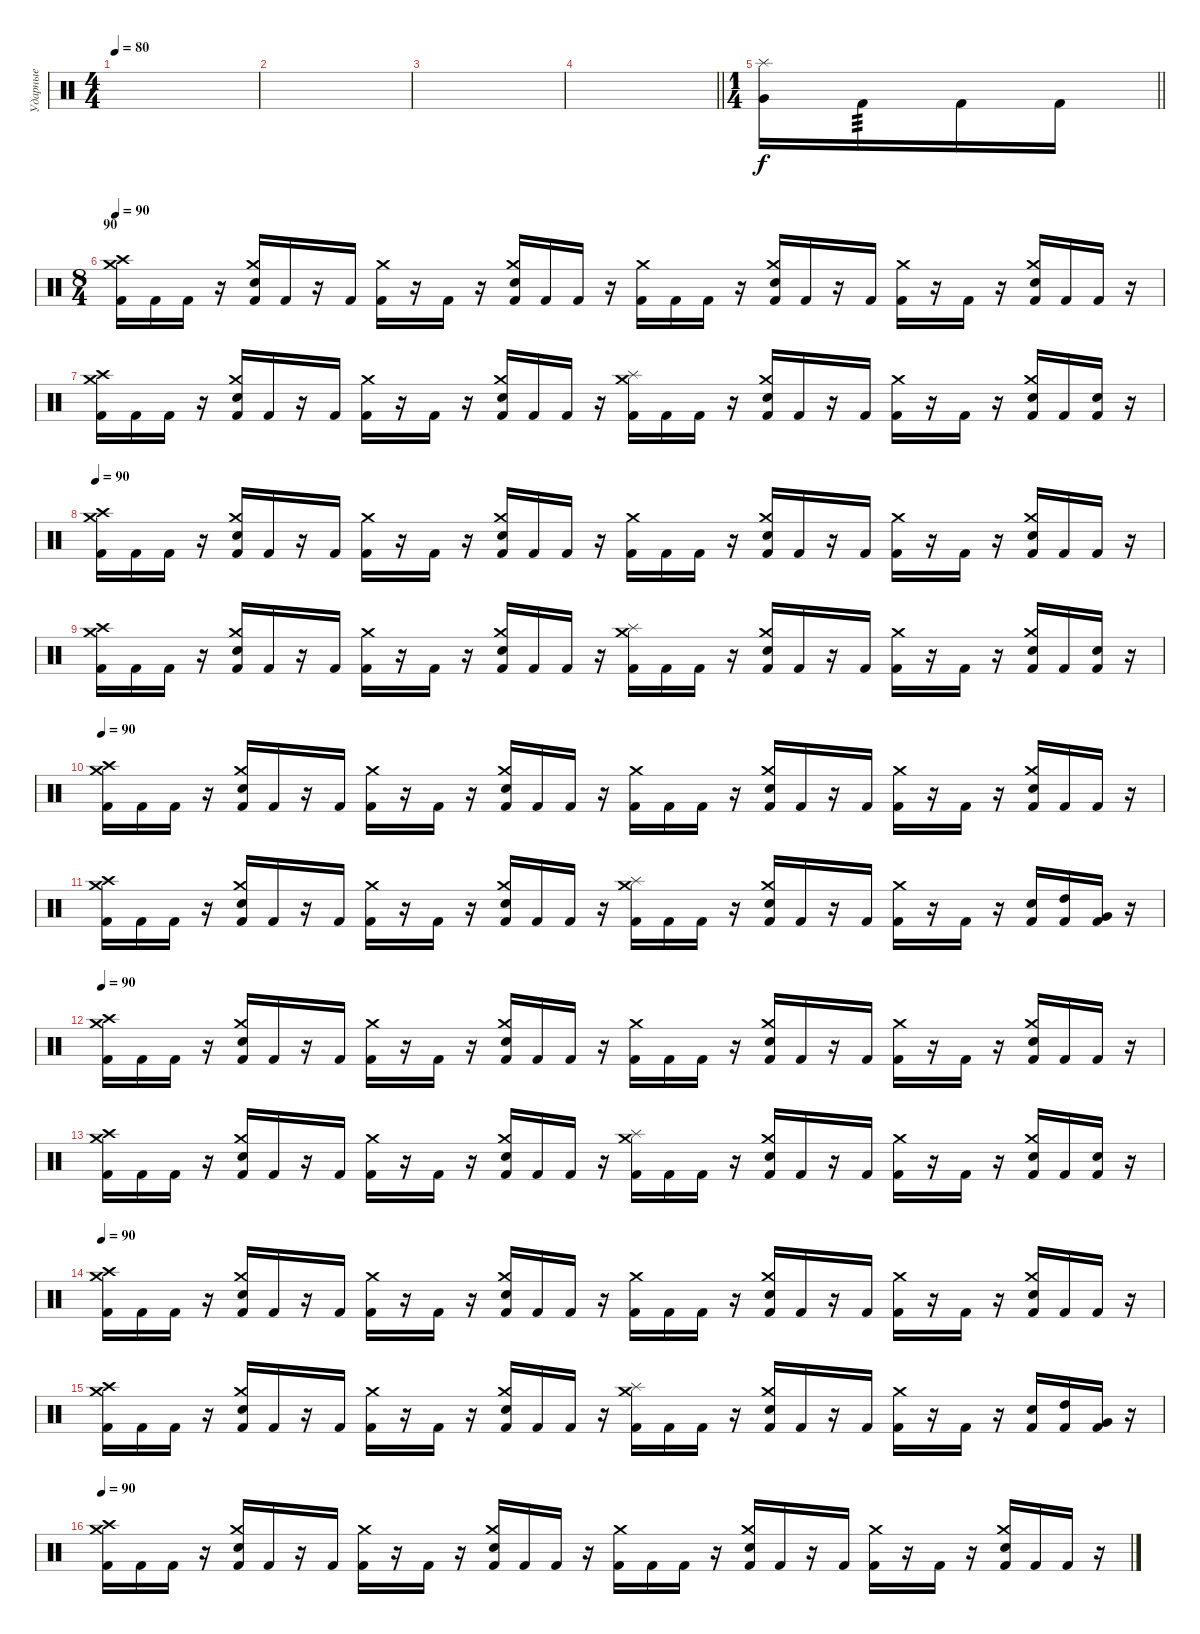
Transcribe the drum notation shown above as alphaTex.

\track ("Ударные" "Ударные") {instrument percussion}
\staff {score}
\articulation defaults
\ts (4 4)
\tempo 80
\clef neutral
\ks c
|
|
|
\barLineRight lightlight
|
\ts (1 4)
\barLineRight lightlight
("Splash (hit)" "Very Low Tom (hit)").16 "Kick (hit) 2".16{tp 3} "Kick (hit) 2".16 "Kick (hit) 2".16 |
\ts (8 4)
\section ("" "90")
\tempo 90
("Crash medium (hit)" "Crash high (hit)" "Kick (hit) 2").16 "Kick (hit) 2".16 "Kick (hit) 2".16 r.16 ("Crash medium (hit)" "Electric Snare (hit)" "Kick (hit) 2").16 "Kick (hit) 2".16 r.16 "Kick (hit) 2".16 ("Crash medium (hit)" "Kick (hit) 2").16 r.16 "Kick (hit) 2".16 r.16 ("Crash medium (hit)" "Electric Snare (hit)" "Kick (hit) 2").16 "Kick (hit) 2".16 "Kick (hit) 2".16 r.16 ("Crash medium (hit)" "Kick (hit) 2").16 "Kick (hit) 2".16 "Kick (hit) 2".16 r.16 ("Crash medium (hit)" "Electric Snare (hit)" "Kick (hit) 2").16 "Kick (hit) 2".16 r.16 "Kick (hit) 2".16 ("Crash medium (hit)" "Kick (hit) 2").16 r.16 "Kick (hit) 2".16 r.16 ("Crash medium (hit)" "Electric Snare (hit)" "Kick (hit) 2").16 "Kick (hit) 2".16 "Kick (hit) 2".16 r.16 |
("Crash medium (hit)" "Crash high (hit)" "Kick (hit) 2").16 "Kick (hit) 2".16 "Kick (hit) 2".16 r.16 ("Crash medium (hit)" "Electric Snare (hit)" "Kick (hit) 2").16 "Kick (hit) 2".16 r.16 "Kick (hit) 2".16 ("Crash medium (hit)" "Kick (hit) 2").16 r.16 "Kick (hit) 2".16 r.16 ("Crash medium (hit)" "Electric Snare (hit)" "Kick (hit) 2").16 "Kick (hit) 2".16 "Kick (hit) 2".16 r.16 ("Crash medium (hit)" "Splash (hit)" "Kick (hit) 2").16 "Kick (hit) 2".16 "Kick (hit) 2".16 r.16 ("Crash medium (hit)" "Electric Snare (hit)" "Kick (hit) 2").16 "Kick (hit) 2".16 r.16 "Kick (hit) 2".16 ("Crash medium (hit)" "Kick (hit) 2").16 r.16 "Kick (hit) 2".16 r.16 ("Crash medium (hit)" "Electric Snare (hit)" "Kick (hit) 2").16 "Kick (hit) 2".16 ("Electric Snare (hit)" "Kick (hit) 2").16 r.16 |
\tempo 90
("Crash medium (hit)" "Crash high (hit)" "Kick (hit) 2").16 "Kick (hit) 2".16 "Kick (hit) 2".16 r.16 ("Crash medium (hit)" "Electric Snare (hit)" "Kick (hit) 2").16 "Kick (hit) 2".16 r.16 "Kick (hit) 2".16 ("Crash medium (hit)" "Kick (hit) 2").16 r.16 "Kick (hit) 2".16 r.16 ("Crash medium (hit)" "Electric Snare (hit)" "Kick (hit) 2").16 "Kick (hit) 2".16 "Kick (hit) 2".16 r.16 ("Crash medium (hit)" "Kick (hit) 2").16 "Kick (hit) 2".16 "Kick (hit) 2".16 r.16 ("Crash medium (hit)" "Electric Snare (hit)" "Kick (hit) 2").16 "Kick (hit) 2".16 r.16 "Kick (hit) 2".16 ("Crash medium (hit)" "Kick (hit) 2").16 r.16 "Kick (hit) 2".16 r.16 ("Crash medium (hit)" "Electric Snare (hit)" "Kick (hit) 2").16 "Kick (hit) 2".16 "Kick (hit) 2".16 r.16 |
("Crash medium (hit)" "Crash high (hit)" "Kick (hit) 2").16 "Kick (hit) 2".16 "Kick (hit) 2".16 r.16 ("Crash medium (hit)" "Electric Snare (hit)" "Kick (hit) 2").16 "Kick (hit) 2".16 r.16 "Kick (hit) 2".16 ("Crash medium (hit)" "Kick (hit) 2").16 r.16 "Kick (hit) 2".16 r.16 ("Crash medium (hit)" "Electric Snare (hit)" "Kick (hit) 2").16 "Kick (hit) 2".16 "Kick (hit) 2".16 r.16 ("Crash medium (hit)" "Splash (hit)" "Kick (hit) 2").16 "Kick (hit) 2".16 "Kick (hit) 2".16 r.16 ("Crash medium (hit)" "Electric Snare (hit)" "Kick (hit) 2").16 "Kick (hit) 2".16 r.16 "Kick (hit) 2".16 ("Crash medium (hit)" "Kick (hit) 2").16 r.16 "Kick (hit) 2".16 r.16 ("Crash medium (hit)" "Electric Snare (hit)" "Kick (hit) 2").16 "Kick (hit) 2".16 ("Electric Snare (hit)" "Kick (hit) 2").16 r.16 |
\tempo 90
("Crash medium (hit)" "Crash high (hit)" "Kick (hit) 2").16 "Kick (hit) 2".16 "Kick (hit) 2".16 r.16 ("Crash medium (hit)" "Electric Snare (hit)" "Kick (hit) 2").16 "Kick (hit) 2".16 r.16 "Kick (hit) 2".16 ("Crash medium (hit)" "Kick (hit) 2").16 r.16 "Kick (hit) 2".16 r.16 ("Crash medium (hit)" "Electric Snare (hit)" "Kick (hit) 2").16 "Kick (hit) 2".16 "Kick (hit) 2".16 r.16 ("Crash medium (hit)" "Kick (hit) 2").16 "Kick (hit) 2".16 "Kick (hit) 2".16 r.16 ("Crash medium (hit)" "Electric Snare (hit)" "Kick (hit) 2").16 "Kick (hit) 2".16 r.16 "Kick (hit) 2".16 ("Crash medium (hit)" "Kick (hit) 2").16 r.16 "Kick (hit) 2".16 r.16 ("Crash medium (hit)" "Electric Snare (hit)" "Kick (hit) 2").16 "Kick (hit) 2".16 "Kick (hit) 2".16 r.16 |
("Crash medium (hit)" "Crash high (hit)" "Kick (hit) 2").16 "Kick (hit) 2".16 "Kick (hit) 2".16 r.16 ("Crash medium (hit)" "Electric Snare (hit)" "Kick (hit) 2").16 "Kick (hit) 2".16 r.16 "Kick (hit) 2".16 ("Crash medium (hit)" "Kick (hit) 2").16 r.16 "Kick (hit) 2".16 r.16 ("Crash medium (hit)" "Electric Snare (hit)" "Kick (hit) 2").16 "Kick (hit) 2".16 "Kick (hit) 2".16 r.16 ("Crash medium (hit)" "Splash (hit)" "Kick (hit) 2").16 "Kick (hit) 2".16 "Kick (hit) 2".16 r.16 ("Crash medium (hit)" "Electric Snare (hit)" "Kick (hit) 2").16 "Kick (hit) 2".16 r.16 "Kick (hit) 2".16 ("Crash medium (hit)" "Kick (hit) 2").16 r.16 "Kick (hit) 2".16 r.16 ("Electric Snare (hit)" "Kick (hit) 2").16 ("High Tom (hit)" "Kick (hit) 2").16 ("Very Low Tom (hit)" "Kick (hit) 2").16 r.16 |
\tempo 90
("Crash medium (hit)" "Crash high (hit)" "Kick (hit) 2").16 "Kick (hit) 2".16 "Kick (hit) 2".16 r.16 ("Crash medium (hit)" "Electric Snare (hit)" "Kick (hit) 2").16 "Kick (hit) 2".16 r.16 "Kick (hit) 2".16 ("Crash medium (hit)" "Kick (hit) 2").16 r.16 "Kick (hit) 2".16 r.16 ("Crash medium (hit)" "Electric Snare (hit)" "Kick (hit) 2").16 "Kick (hit) 2".16 "Kick (hit) 2".16 r.16 ("Crash medium (hit)" "Kick (hit) 2").16 "Kick (hit) 2".16 "Kick (hit) 2".16 r.16 ("Crash medium (hit)" "Electric Snare (hit)" "Kick (hit) 2").16 "Kick (hit) 2".16 r.16 "Kick (hit) 2".16 ("Crash medium (hit)" "Kick (hit) 2").16 r.16 "Kick (hit) 2".16 r.16 ("Crash medium (hit)" "Electric Snare (hit)" "Kick (hit) 2").16 "Kick (hit) 2".16 "Kick (hit) 2".16 r.16 |
("Crash medium (hit)" "Crash high (hit)" "Kick (hit) 2").16 "Kick (hit) 2".16 "Kick (hit) 2".16 r.16 ("Crash medium (hit)" "Electric Snare (hit)" "Kick (hit) 2").16 "Kick (hit) 2".16 r.16 "Kick (hit) 2".16 ("Crash medium (hit)" "Kick (hit) 2").16 r.16 "Kick (hit) 2".16 r.16 ("Crash medium (hit)" "Electric Snare (hit)" "Kick (hit) 2").16 "Kick (hit) 2".16 "Kick (hit) 2".16 r.16 ("Crash medium (hit)" "Splash (hit)" "Kick (hit) 2").16 "Kick (hit) 2".16 "Kick (hit) 2".16 r.16 ("Crash medium (hit)" "Electric Snare (hit)" "Kick (hit) 2").16 "Kick (hit) 2".16 r.16 "Kick (hit) 2".16 ("Crash medium (hit)" "Kick (hit) 2").16 r.16 "Kick (hit) 2".16 r.16 ("Crash medium (hit)" "Electric Snare (hit)" "Kick (hit) 2").16 "Kick (hit) 2".16 ("Electric Snare (hit)" "Kick (hit) 2").16 r.16 |
\tempo 90
("Crash medium (hit)" "Crash high (hit)" "Kick (hit) 2").16 "Kick (hit) 2".16 "Kick (hit) 2".16 r.16 ("Crash medium (hit)" "Electric Snare (hit)" "Kick (hit) 2").16 "Kick (hit) 2".16 r.16 "Kick (hit) 2".16 ("Crash medium (hit)" "Kick (hit) 2").16 r.16 "Kick (hit) 2".16 r.16 ("Crash medium (hit)" "Electric Snare (hit)" "Kick (hit) 2").16 "Kick (hit) 2".16 "Kick (hit) 2".16 r.16 ("Crash medium (hit)" "Kick (hit) 2").16 "Kick (hit) 2".16 "Kick (hit) 2".16 r.16 ("Crash medium (hit)" "Electric Snare (hit)" "Kick (hit) 2").16 "Kick (hit) 2".16 r.16 "Kick (hit) 2".16 ("Crash medium (hit)" "Kick (hit) 2").16 r.16 "Kick (hit) 2".16 r.16 ("Crash medium (hit)" "Electric Snare (hit)" "Kick (hit) 2").16 "Kick (hit) 2".16 "Kick (hit) 2".16 r.16 |
("Crash medium (hit)" "Crash high (hit)" "Kick (hit) 2").16 "Kick (hit) 2".16 "Kick (hit) 2".16 r.16 ("Crash medium (hit)" "Electric Snare (hit)" "Kick (hit) 2").16 "Kick (hit) 2".16 r.16 "Kick (hit) 2".16 ("Crash medium (hit)" "Kick (hit) 2").16 r.16 "Kick (hit) 2".16 r.16 ("Crash medium (hit)" "Electric Snare (hit)" "Kick (hit) 2").16 "Kick (hit) 2".16 "Kick (hit) 2".16 r.16 ("Crash medium (hit)" "Splash (hit)" "Kick (hit) 2").16 "Kick (hit) 2".16 "Kick (hit) 2".16 r.16 ("Crash medium (hit)" "Electric Snare (hit)" "Kick (hit) 2").16 "Kick (hit) 2".16 r.16 "Kick (hit) 2".16 ("Crash medium (hit)" "Kick (hit) 2").16 r.16 "Kick (hit) 2".16 r.16 ("Electric Snare (hit)" "Kick (hit) 2").16 ("High Tom (hit)" "Kick (hit) 2").16 ("Very Low Tom (hit)" "Kick (hit) 2").16 r.16 |
\tempo 90
("Crash medium (hit)" "Crash high (hit)" "Kick (hit) 2").16 "Kick (hit) 2".16 "Kick (hit) 2".16 r.16 ("Crash medium (hit)" "Electric Snare (hit)" "Kick (hit) 2").16 "Kick (hit) 2".16 r.16 "Kick (hit) 2".16 ("Crash medium (hit)" "Kick (hit) 2").16 r.16 "Kick (hit) 2".16 r.16 ("Crash medium (hit)" "Electric Snare (hit)" "Kick (hit) 2").16 "Kick (hit) 2".16 "Kick (hit) 2".16 r.16 ("Crash medium (hit)" "Kick (hit) 2").16 "Kick (hit) 2".16 "Kick (hit) 2".16 r.16 ("Crash medium (hit)" "Electric Snare (hit)" "Kick (hit) 2").16 "Kick (hit) 2".16 r.16 "Kick (hit) 2".16 ("Crash medium (hit)" "Kick (hit) 2").16 r.16 "Kick (hit) 2".16 r.16 ("Crash medium (hit)" "Electric Snare (hit)" "Kick (hit) 2").16 "Kick (hit) 2".16 "Kick (hit) 2".16 r.16
